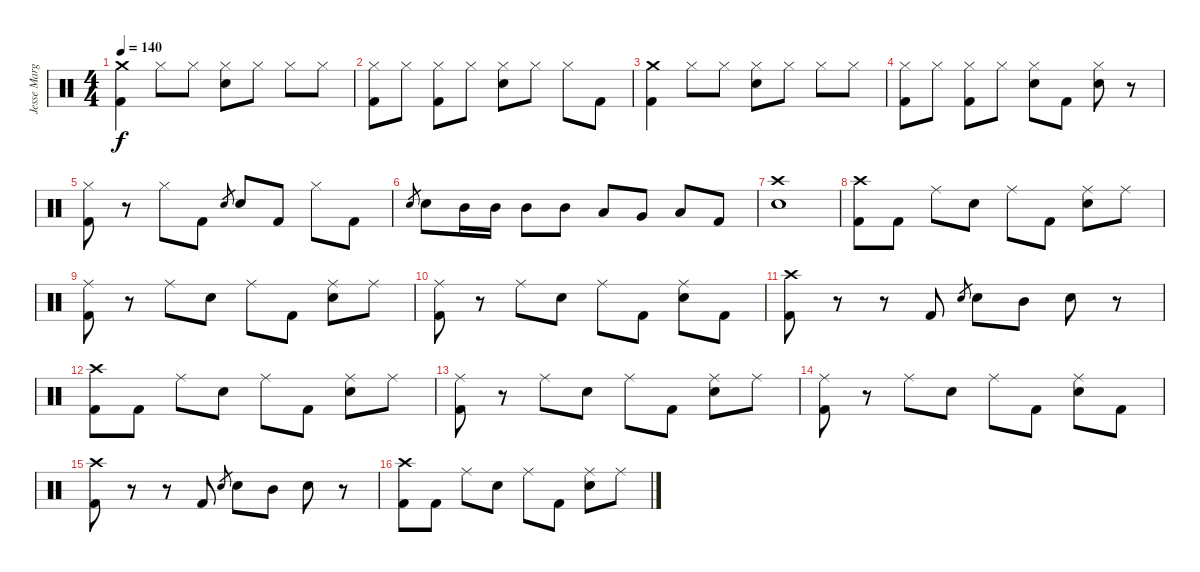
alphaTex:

\track ("Jesse Margera" "Jesse Marg") {instrument percussion}
\staff {score}
\articulation defaults
\ts (4 4)
\tempo 140
\clef neutral
\ks c
("Crash medium (hit)" "Kick (hit) 2").4{dy f} "Hi-Hat (closed)".8 "Hi-Hat (closed)".8 ("Hi-Hat (closed)" "Electric Snare (hit)").8 "Hi-Hat (closed)".8 "Hi-Hat (closed)".8 "Hi-Hat (closed)".8 |
("Hi-Hat (closed)" "Kick (hit) 2").8 "Hi-Hat (closed)".8 ("Hi-Hat (closed)" "Kick (hit) 2").8 "Hi-Hat (closed)".8 ("Hi-Hat (closed)" "Electric Snare (hit)").8 "Hi-Hat (closed)".8 "Hi-Hat (closed)".8 "Kick (hit) 2".8 |
("Crash medium (hit)" "Kick (hit) 2").4 "Hi-Hat (closed)".8 "Hi-Hat (closed)".8 ("Hi-Hat (closed)" "Electric Snare (hit)").8 "Hi-Hat (closed)".8 "Hi-Hat (closed)".8 "Hi-Hat (closed)".8 |
("Hi-Hat (closed)" "Kick (hit) 2").8 "Hi-Hat (closed)".8 ("Hi-Hat (closed)" "Kick (hit) 2").8 "Hi-Hat (closed)".8 ("Hi-Hat (closed)" "Electric Snare (hit)").8 "Kick (hit) 2".8 ("Hi-Hat (closed)" "Electric Snare (hit)").8 r.8 |
("Hi-Hat (closed)" "Kick (hit) 2").8 r.8 "Hi-Hat (closed)".8 "Kick (hit) 2".8 "Electric Snare (hit)".8{gr} "Electric Snare (hit)".8 "Kick (hit) 2".8 "Hi-Hat (closed)".8 "Kick (hit) 2".8 |
"Electric Snare (hit)".8{gr} "Electric Snare (hit)".8 "Mid Tom (hit)".16 "Mid Tom (hit)".16 "Mid Tom (hit)".8 "Mid Tom (hit)".8 "Low Tom (hit)".8 "Very Low Tom (hit)".8 "Low Floor Tom (hit)".8 "Kick (hit) 2".8 |
("Crash high (hit)" "Electric Snare (hit)").1 |
("Crash high (hit)" "Kick (hit) 2").8 "Kick (hit) 2".8 "Ride (middle)".8 "Electric Snare (hit)".8 "Ride (middle)".8 "Kick (hit) 2".8 ("Ride (middle)" "Electric Snare (hit)").8 "Ride (middle)".8 |
("Ride (middle)" "Kick (hit) 2").8 r.8 "Ride (middle)".8 "Electric Snare (hit)".8 "Ride (middle)".8 "Kick (hit) 2".8 ("Ride (middle)" "Electric Snare (hit)").8 "Ride (middle)".8 |
("Ride (middle)" "Kick (hit) 2").8 r.8 "Ride (middle)".8 "Electric Snare (hit)".8 "Ride (middle)".8 "Kick (hit) 2".8 ("Ride (middle)" "Electric Snare (hit)").8 "Kick (hit) 2".8 |
("Crash high (hit)" "Kick (hit) 2").8 r.8 r.8 "Kick (hit) 2".8 "Electric Snare (hit)".8{gr} "Electric Snare (hit)".8 "Mid Tom (hit)".8 "Electric Snare (hit)".8 r.8 |
("Crash high (hit)" "Kick (hit) 2").8 "Kick (hit) 2".8 "Ride (middle)".8 "Electric Snare (hit)".8 "Ride (middle)".8 "Kick (hit) 2".8 ("Ride (middle)" "Electric Snare (hit)").8 "Ride (middle)".8 |
("Ride (middle)" "Kick (hit) 2").8 r.8 "Ride (middle)".8 "Electric Snare (hit)".8 "Ride (middle)".8 "Kick (hit) 2".8 ("Ride (middle)" "Electric Snare (hit)").8 "Ride (middle)".8 |
("Ride (middle)" "Kick (hit) 2").8 r.8 "Ride (middle)".8 "Electric Snare (hit)".8 "Ride (middle)".8 "Kick (hit) 2".8 ("Ride (middle)" "Electric Snare (hit)").8 "Kick (hit) 2".8 |
("Crash high (hit)" "Kick (hit) 2").8 r.8 r.8 "Kick (hit) 2".8 "Electric Snare (hit)".8{gr} "Electric Snare (hit)".8 "Mid Tom (hit)".8 "Electric Snare (hit)".8 r.8 |
("Crash high (hit)" "Kick (hit) 2").8 "Kick (hit) 2".8 "Ride (middle)".8 "Electric Snare (hit)".8 "Ride (middle)".8 "Kick (hit) 2".8 ("Ride (middle)" "Electric Snare (hit)").8 "Ride (middle)".8
